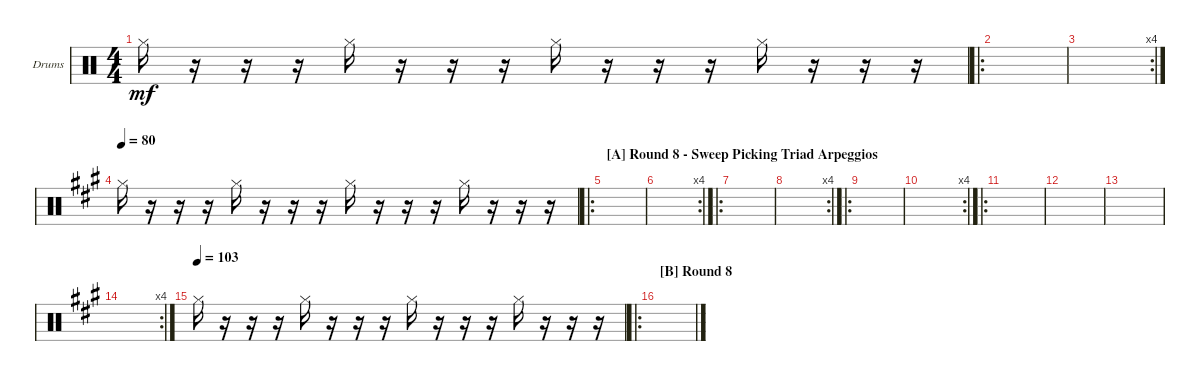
\defaultSystemsLayout 4
\bracketExtendMode groupsimilarinstruments
\firstSystemTrackNameOrientation horizontal
\otherSystemsTrackNameOrientation horizontal
\track ("Drumkit" "Drums") {instrument percussion}
\staff {score}
\articulation defaults
\ts (4 4)
\tempo (103 hide)
\clef neutral
\scale
0.431034
\ks c "Hi-Hat (closed)".16{dy mf}
r.16 r.16 r.16 "Hi-Hat (closed)".16 r.16 r.16 r.16 "Hi-Hat (closed)".16 r.16 r.16 r.16 "Hi-Hat (closed)".16 r.16 r.16 r.16 |
\ro
\scale
0.297414 |
\rc 4
\scale
0.271552 |
\tempo 80
\scale
0.438298
\ks a "Hi-Hat (closed)".16
r.16 r.16 r.16 "Hi-Hat (closed)".16 r.16 r.16 r.16 "Hi-Hat (closed)".16 r.16 r.16 r.16 "Hi-Hat (closed)".16 r.16 r.16 r.16 |
\ro
\section ("A" "Round 8 - Sweep Picking Triad Arpeggios")
\tempo (80 hide)
\scale
0.293617 |
\rc 4
\scale
0.268085 |
\ro
\scale
0.343284 |
\rc 4
\scale
0.313433 |
\ro
\scale
0.343284 |
\rc 4
\scale
0.333333 |
\ro
\scale
0.365079 |
\scale
0.301587 |
\scale
0.322034 |
\rc 4
\scale
0.355932 |
\tempo 103
\scale
0.322034 "Hi-Hat (closed)".16 r.16 r.16 r.16 "Hi-Hat (closed)".16 r.16 r.16 r.16 "Hi-Hat (closed)".16 r.16 r.16 r.16 "Hi-Hat (closed)".16 r.16 r.16 r.16 |
\ro
\section ("B" "Round 8")
\tempo (103 hide)
\scale
0.343284
